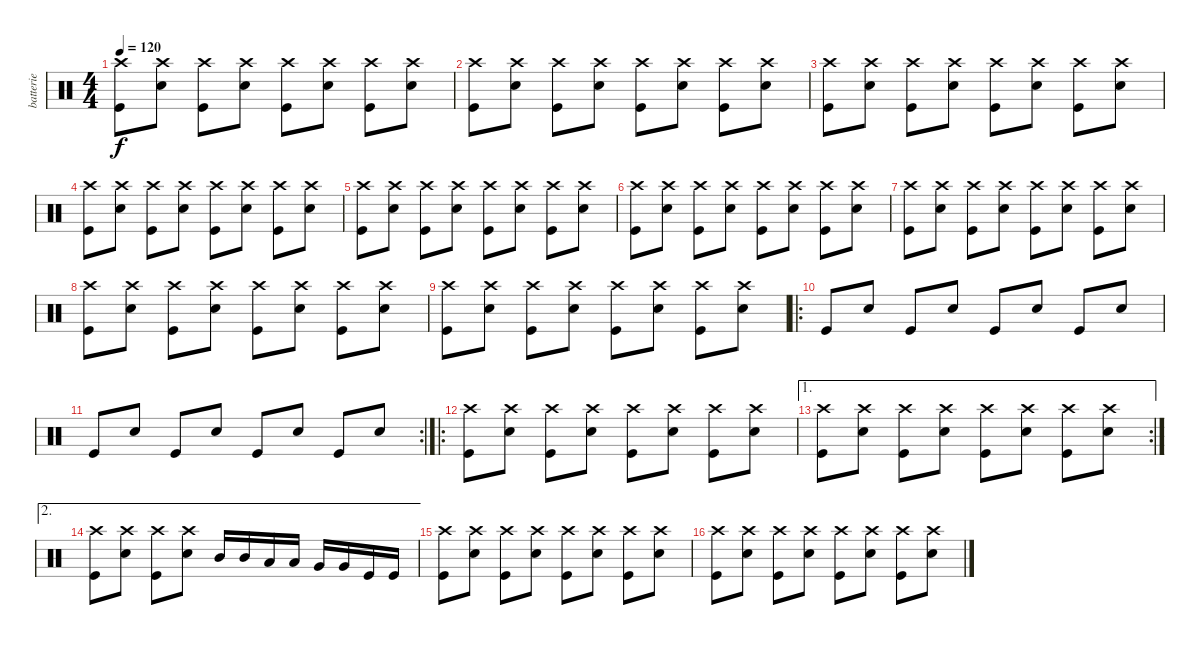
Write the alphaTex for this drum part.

\track ("batterie" "batterie") {instrument percussion}
\staff {score}
\articulation defaults
\ts (4 4)
\tempo 120
\clef neutral
\ks c
("Crash high (hit)" "Kick (hit)").8{dy f} ("Crash high (hit)" "Snare (hit) 2").8 ("Crash high (hit)" "Kick (hit)").8 ("Crash high (hit)" "Snare (hit) 2").8 ("Crash high (hit)" "Kick (hit)").8 ("Crash high (hit)" "Snare (hit) 2").8 ("Crash high (hit)" "Kick (hit)").8 ("Crash high (hit)" "Snare (hit) 2").8 |
("Crash high (hit)" "Kick (hit)").8 ("Crash high (hit)" "Snare (hit) 2").8 ("Crash high (hit)" "Kick (hit)").8 ("Crash high (hit)" "Snare (hit) 2").8 ("Crash high (hit)" "Kick (hit)").8 ("Crash high (hit)" "Snare (hit) 2").8 ("Crash high (hit)" "Kick (hit)").8 ("Crash high (hit)" "Snare (hit) 2").8 |
("Crash high (hit)" "Kick (hit)").8 ("Crash high (hit)" "Snare (hit) 2").8 ("Crash high (hit)" "Kick (hit)").8 ("Crash high (hit)" "Snare (hit) 2").8 ("Crash high (hit)" "Kick (hit)").8 ("Crash high (hit)" "Snare (hit) 2").8 ("Crash high (hit)" "Kick (hit)").8 ("Crash high (hit)" "Snare (hit) 2").8 |
("Crash high (hit)" "Kick (hit)").8 ("Crash high (hit)" "Snare (hit) 2").8 ("Crash high (hit)" "Kick (hit)").8 ("Crash high (hit)" "Snare (hit) 2").8 ("Crash high (hit)" "Kick (hit)").8 ("Crash high (hit)" "Snare (hit) 2").8 ("Crash high (hit)" "Kick (hit)").8 ("Crash high (hit)" "Snare (hit) 2").8 |
("Crash high (hit)" "Kick (hit)").8 ("Crash high (hit)" "Snare (hit) 2").8 ("Crash high (hit)" "Kick (hit)").8 ("Crash high (hit)" "Snare (hit) 2").8 ("Crash high (hit)" "Kick (hit)").8 ("Crash high (hit)" "Snare (hit) 2").8 ("Crash high (hit)" "Kick (hit)").8 ("Crash high (hit)" "Snare (hit) 2").8 |
("Crash high (hit)" "Kick (hit)").8 ("Crash high (hit)" "Snare (hit) 2").8 ("Crash high (hit)" "Kick (hit)").8 ("Crash high (hit)" "Snare (hit) 2").8 ("Crash high (hit)" "Kick (hit)").8 ("Crash high (hit)" "Snare (hit) 2").8 ("Crash high (hit)" "Kick (hit)").8 ("Crash high (hit)" "Snare (hit) 2").8 |
("Crash high (hit)" "Kick (hit)").8 ("Crash high (hit)" "Snare (hit) 2").8 ("Crash high (hit)" "Kick (hit)").8 ("Crash high (hit)" "Snare (hit) 2").8 ("Crash high (hit)" "Kick (hit)").8 ("Crash high (hit)" "Snare (hit) 2").8 ("Crash high (hit)" "Kick (hit)").8 ("Crash high (hit)" "Snare (hit) 2").8 |
("Crash high (hit)" "Kick (hit)").8 ("Crash high (hit)" "Snare (hit) 2").8 ("Crash high (hit)" "Kick (hit)").8 ("Crash high (hit)" "Snare (hit) 2").8 ("Crash high (hit)" "Kick (hit)").8 ("Crash high (hit)" "Snare (hit) 2").8 ("Crash high (hit)" "Kick (hit)").8 ("Crash high (hit)" "Snare (hit) 2").8 |
("Crash high (hit)" "Kick (hit)").8 ("Crash high (hit)" "Snare (hit) 2").8 ("Crash high (hit)" "Kick (hit)").8 ("Crash high (hit)" "Snare (hit) 2").8 ("Crash high (hit)" "Kick (hit)").8 ("Crash high (hit)" "Snare (hit) 2").8 ("Crash high (hit)" "Kick (hit)").8 ("Crash high (hit)" "Snare (hit) 2").8 |
\ro "Kick (hit)".8 "Snare (hit) 2".8 "Kick (hit)".8 "Snare (hit) 2".8 "Kick (hit)".8 "Snare (hit) 2".8 "Kick (hit)".8 "Snare (hit) 2".8
|
\rc 2 "Kick (hit)".8 "Snare (hit) 2".8 "Kick (hit)".8 "Snare (hit) 2".8 "Kick (hit)".8 "Snare (hit) 2".8 "Kick (hit)".8 "Snare (hit) 2".8
|
\ro
("Crash high (hit)" "Kick (hit)").8 ("Crash high (hit)" "Snare (hit) 2").8 ("Crash high (hit)" "Kick (hit)").8 ("Crash high (hit)" "Snare (hit) 2").8 ("Crash high (hit)" "Kick (hit)").8 ("Crash high (hit)" "Snare (hit) 2").8 ("Crash high (hit)" "Kick (hit)").8 ("Crash high (hit)" "Snare (hit) 2").8 |
\ae 1
\rc 2
("Crash high (hit)" "Kick (hit)").8 ("Crash high (hit)" "Snare (hit) 2").8 ("Crash high (hit)" "Kick (hit)").8 ("Crash high (hit)" "Snare (hit) 2").8 ("Crash high (hit)" "Kick (hit)").8 ("Crash high (hit)" "Snare (hit) 2").8 ("Crash high (hit)" "Kick (hit)").8 ("Crash high (hit)" "Snare (hit) 2").8 |
\ae 2
("Crash high (hit)" "Kick (hit)").8 ("Crash high (hit)" "Snare (hit) 2").8 ("Crash high (hit)" "Kick (hit)").8 ("Crash high (hit)" "Snare (hit) 2").8 "Mid Tom (hit)".16 "Mid Tom (hit)".16 "Low Tom (hit)".16 "Low Tom (hit)".16 "Very Low Tom (hit)".16 "Very Low Tom (hit)".16 "Kick (hit)".16 "Kick (hit)".16 |
("Crash high (hit)" "Kick (hit)").8 ("Crash high (hit)" "Snare (hit) 2").8 ("Crash high (hit)" "Kick (hit)").8 ("Crash high (hit)" "Snare (hit) 2").8 ("Crash high (hit)" "Kick (hit)").8 ("Crash high (hit)" "Snare (hit) 2").8 ("Crash high (hit)" "Kick (hit)").8 ("Crash high (hit)" "Snare (hit) 2").8 |
("Crash high (hit)" "Kick (hit)").8 ("Crash high (hit)" "Snare (hit) 2").8 ("Crash high (hit)" "Kick (hit)").8 ("Crash high (hit)" "Snare (hit) 2").8 ("Crash high (hit)" "Kick (hit)").8 ("Crash high (hit)" "Snare (hit) 2").8 ("Crash high (hit)" "Kick (hit)").8 ("Crash high (hit)" "Snare (hit) 2").8
